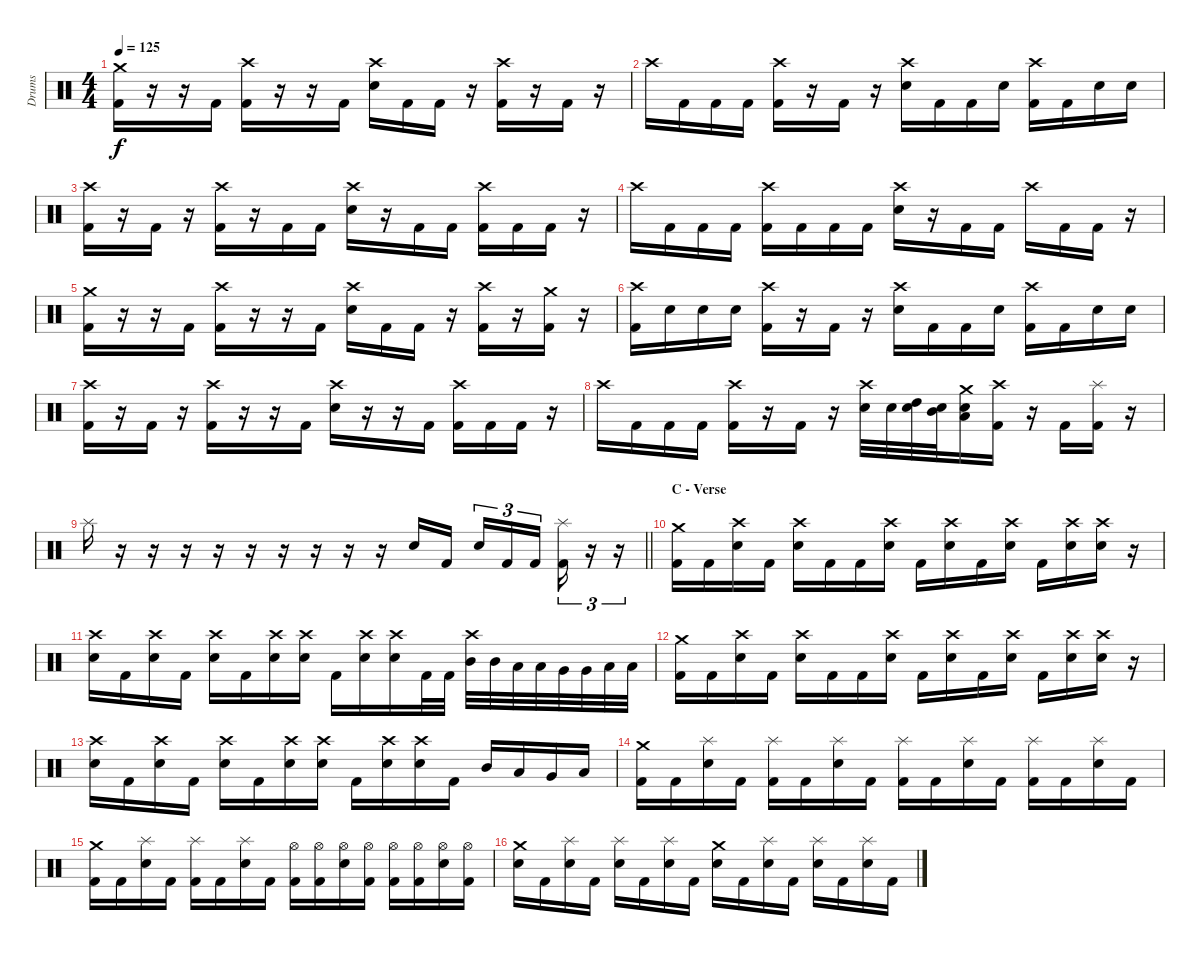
\track ("Drums" "Drums") {instrument percussion}
\staff {score}
\articulation defaults
\ts (4 4)
\tempo 125
\clef neutral
\ks c
("Crash medium (hit)" "Kick (hit) 2").16{dy f} r.16 r.16 "Kick (hit) 2".16 ("Crash high (hit)" "Kick (hit) 2").16 r.16 r.16 "Kick (hit) 2".16 ("Crash high (hit)" "Electric Snare (hit)").16 "Kick (hit) 2".16 "Kick (hit) 2".16 r.16 ("Crash high (hit)" "Kick (hit) 2").16 r.16 "Kick (hit) 2".16 r.16 |
"Crash high (hit)".16 "Kick (hit) 2".16 "Kick (hit) 2".16 "Kick (hit) 2".16 ("Crash high (hit)" "Kick (hit) 2").16 r.16 "Kick (hit) 2".16 r.16 ("Crash high (hit)" "Electric Snare (hit)").16 "Kick (hit) 2".16 "Kick (hit) 2".16 "Electric Snare (hit)".16 ("Crash high (hit)" "Kick (hit) 2").16 "Kick (hit) 2".16 "Electric Snare (hit)".16 "Electric Snare (hit)".16 |
("Crash high (hit)" "Kick (hit) 2").16 r.16 "Kick (hit) 2".16 r.16 ("Crash high (hit)" "Kick (hit) 2").16 r.16 "Kick (hit) 2".16 "Kick (hit) 2".16 ("Crash high (hit)" "Electric Snare (hit)").16 r.16 "Kick (hit) 2".16 "Kick (hit) 2".16 ("Crash high (hit)" "Kick (hit) 2").16 "Kick (hit) 2".16 "Kick (hit) 2".16 r.16 |
"Crash high (hit)".16 "Kick (hit) 2".16 "Kick (hit) 2".16 "Kick (hit) 2".16 ("Crash high (hit)" "Kick (hit) 2").16 "Kick (hit) 2".16 "Kick (hit) 2".16 "Kick (hit) 2".16 ("Crash high (hit)" "Electric Snare (hit)").16 r.16 "Kick (hit) 2".16 "Kick (hit) 2".16 "Crash high (hit)".16 "Kick (hit) 2".16 "Kick (hit) 2".16 r.16 |
("Crash medium (hit)" "Kick (hit) 2").16 r.16 r.16 "Kick (hit) 2".16 ("Crash high (hit)" "Kick (hit) 2").16 r.16 r.16 "Kick (hit) 2".16 ("Crash high (hit)" "Electric Snare (hit)").16 "Kick (hit) 2".16 "Kick (hit) 2".16 r.16 ("Crash high (hit)" "Kick (hit) 2").16 r.16 ("Crash medium (hit)" "Kick (hit) 2").16 r.16 |
("Crash high (hit)" "Kick (hit) 2").16 "Electric Snare (hit)".16 "Electric Snare (hit)".16 "Electric Snare (hit)".16 ("Crash high (hit)" "Kick (hit) 2").16 r.16 "Kick (hit) 2".16 r.16 ("Crash high (hit)" "Electric Snare (hit)").16 "Kick (hit) 2".16 "Kick (hit) 2".16 "Electric Snare (hit)".16 ("Crash high (hit)" "Kick (hit) 2").16 "Kick (hit) 2".16 "Electric Snare (hit)".16 "Electric Snare (hit)".16 |
("Crash high (hit)" "Kick (hit) 2").16 r.16 "Kick (hit) 2".16 r.16 ("Crash high (hit)" "Kick (hit) 2").16 r.16 r.16 "Kick (hit) 2".16 ("Crash high (hit)" "Electric Snare (hit)").16 r.16 r.16 "Kick (hit) 2".16 ("Crash high (hit)" "Kick (hit) 2").16 "Kick (hit) 2".16 "Kick (hit) 2".16 r.16 |
"Crash high (hit)".16 "Kick (hit) 2".16 "Kick (hit) 2".16 "Kick (hit) 2".16 ("Crash high (hit)" "Kick (hit) 2").16 r.16 "Kick (hit) 2".16 r.16 ("Crash high (hit)" "Electric Snare (hit)").32 "Electric Snare (hit)".32 ("Electric Snare (hit)" "High Tom (hit)").32 ("Electric Snare (hit)" "Mid Tom (hit)").32 ("Crash medium (hit)" "Electric Snare (hit)" "Low Tom (hit)").16 ("Crash high (hit)" "Kick (hit) 2").16 r.16 "Kick (hit) 2".16 ("Splash (hit)" "Kick (hit) 2").16 r.16 |
\barLineRight lightlight "Splash (hit)".16
r.16 r.16 r.16 r.16 r.16 r.16 r.16 r.16 r.16 "Electric Snare (hit)".16 "Kick (hit) 2".16 "Electric Snare (hit)".16{tu (3 2)} "Kick (hit) 2".16{tu (3 2)} "Kick (hit) 2".16{tu (3 2) beam splitsecondary} ("Splash (hit)" "Kick (hit) 2").16{tu (3 2)} r.16{tu (3 2)} r.16{tu (3 2)} |
\section ("" "C - Verse")
("Crash medium (hit)" "Kick (hit) 2").16 "Kick (hit) 2".16 ("Crash high (hit)" "Electric Snare (hit)").16 "Kick (hit) 2".16 ("Crash high (hit)" "Electric Snare (hit)").16 "Kick (hit) 2".16 "Kick (hit) 2".16 ("Crash high (hit)" "Electric Snare (hit)").16 "Kick (hit) 2".16 ("Crash high (hit)" "Electric Snare (hit)").16 "Kick (hit) 2".16 ("Crash high (hit)" "Electric Snare (hit)").16 "Kick (hit) 2".16 ("Crash high (hit)" "Electric Snare (hit)").16 ("Crash high (hit)" "Electric Snare (hit)").16 r.16 |
("Crash high (hit)" "Electric Snare (hit)").16 "Kick (hit) 2".16 ("Crash high (hit)" "Electric Snare (hit)").16 "Kick (hit) 2".16 ("Crash high (hit)" "Electric Snare (hit)").16 "Kick (hit) 2".16 ("Crash high (hit)" "Electric Snare (hit)").16 ("Crash high (hit)" "Electric Snare (hit)").16 "Kick (hit) 2".16 ("Crash high (hit)" "Electric Snare (hit)").16 ("Crash high (hit)" "Electric Snare (hit)").16 "Kick (hit) 2".32 "Kick (hit) 2".32 ("Crash high (hit)" "Mid Tom (hit)").32 "Mid Tom (hit)".32 "Low Tom (hit)".32 "Low Tom (hit)".32 "Very Low Tom (hit)".32 "Very Low Tom (hit)".32 "Low Floor Tom (hit)".32 "Low Floor Tom (hit)".32 |
("Crash medium (hit)" "Kick (hit) 2").16 "Kick (hit) 2".16 ("Crash high (hit)" "Electric Snare (hit)").16 "Kick (hit) 2".16 ("Crash high (hit)" "Electric Snare (hit)").16 "Kick (hit) 2".16 "Kick (hit) 2".16 ("Crash high (hit)" "Electric Snare (hit)").16 "Kick (hit) 2".16 ("Crash high (hit)" "Electric Snare (hit)").16 "Kick (hit) 2".16 ("Crash high (hit)" "Electric Snare (hit)").16 "Kick (hit) 2".16 ("Crash high (hit)" "Electric Snare (hit)").16 ("Crash high (hit)" "Electric Snare (hit)").16 r.16 |
("Crash high (hit)" "Electric Snare (hit)").16 "Kick (hit) 2".16 ("Crash high (hit)" "Electric Snare (hit)").16 "Kick (hit) 2".16 ("Crash high (hit)" "Electric Snare (hit)").16 "Kick (hit) 2".16 ("Crash high (hit)" "Electric Snare (hit)").16 ("Crash high (hit)" "Electric Snare (hit)").16 "Kick (hit) 2".16 ("Crash high (hit)" "Electric Snare (hit)").16 ("Crash high (hit)" "Electric Snare (hit)").16 "Kick (hit) 2".16 "Mid Tom (hit)".16 "Low Tom (hit)".16 "Very Low Tom (hit)".16 "Low Floor Tom (hit)".16 |
("Crash medium (hit)" "Kick (hit) 2").16 "Kick (hit) 2".16 ("Splash (hit)" "Electric Snare (hit)").16 "Kick (hit) 2".16 ("Splash (hit)" "Kick (hit) 2").16 "Kick (hit) 2".16 ("Splash (hit)" "Electric Snare (hit)").16 "Kick (hit) 2".16 ("Splash (hit)" "Kick (hit) 2").16 "Kick (hit) 2".16 ("Splash (hit)" "Electric Snare (hit)").16 "Kick (hit) 2".16 ("Splash (hit)" "Kick (hit) 2").16 "Kick (hit) 2".16 ("Splash (hit)" "Electric Snare (hit)").16 "Kick (hit) 2".16 |
("Crash medium (hit)" "Kick (hit) 2").16 "Kick (hit) 2".16 ("Splash (hit)" "Electric Snare (hit)").16 "Kick (hit) 2".16 ("Splash (hit)" "Kick (hit) 2").16 "Kick (hit) 2".16 ("Splash (hit)" "Electric Snare (hit)").16 "Kick (hit) 2".16 ("Hi-Hat (open)" "Kick (hit) 2").16 ("Hi-Hat (open)" "Kick (hit) 2").16 ("Hi-Hat (open)" "Electric Snare (hit)").16 ("Hi-Hat (open)" "Kick (hit) 2").16 ("Hi-Hat (open)" "Kick (hit) 2").16 ("Hi-Hat (open)" "Kick (hit) 2").16 ("Hi-Hat (open)" "Electric Snare (hit)").16 ("Hi-Hat (open)" "Kick (hit) 2").16 |
("Crash medium (hit)" "Electric Snare (hit)").16 "Kick (hit) 2".16 ("Splash (hit)" "Electric Snare (hit)").16 "Kick (hit) 2".16 ("Splash (hit)" "Electric Snare (hit)").16 "Kick (hit) 2".16 ("Splash (hit)" "Electric Snare (hit)").16 "Kick (hit) 2".16 ("Crash medium (hit)" "Electric Snare (hit)").16 "Kick (hit) 2".16 ("Splash (hit)" "Electric Snare (hit)").16 "Kick (hit) 2".16 ("Splash (hit)" "Electric Snare (hit)").16 "Kick (hit) 2".16 ("Splash (hit)" "Electric Snare (hit)").16 "Kick (hit) 2".16
